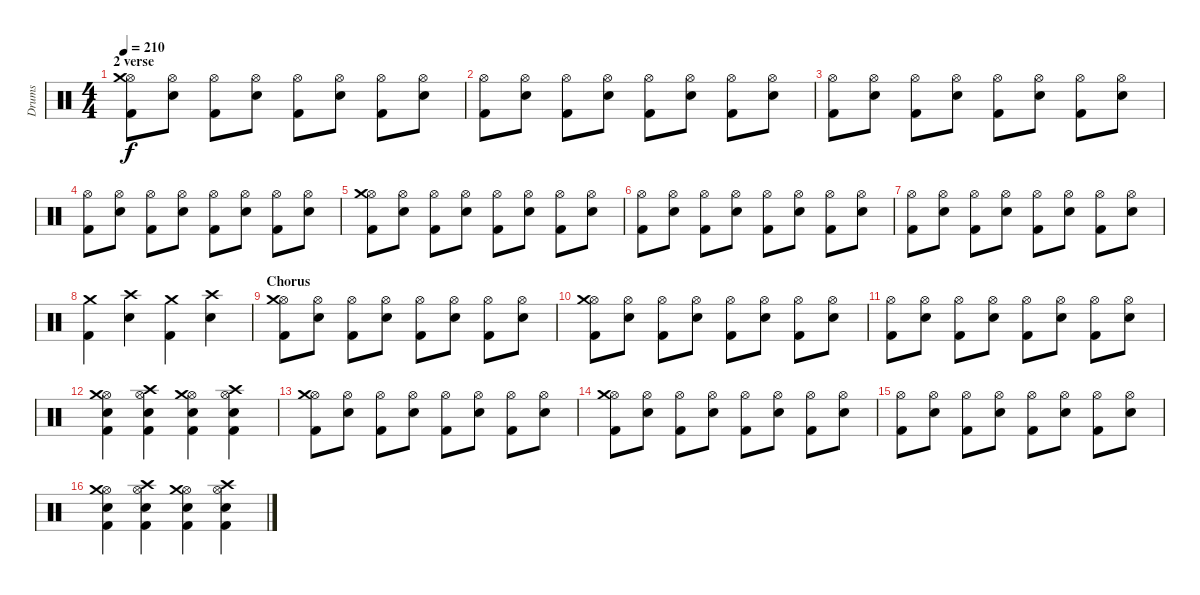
\track ("Drums" "Drums") {instrument percussion}
\staff {score}
\articulation defaults
\ts (4 4)
\section ("" "2 verse")
\tempo 210
\clef neutral
\ks c
("Hi-Hat (open)" "Crash medium (hit)" "Kick (hit) 2").8{dy f} ("Hi-Hat (open)" "Electric Snare (hit)").8 ("Hi-Hat (open)" "Kick (hit) 2").8 ("Hi-Hat (open)" "Electric Snare (hit)").8 ("Hi-Hat (open)" "Kick (hit) 2").8 ("Hi-Hat (open)" "Electric Snare (hit)").8 ("Hi-Hat (open)" "Kick (hit) 2").8 ("Hi-Hat (open)" "Electric Snare (hit)").8 |
("Hi-Hat (open)" "Kick (hit) 2").8 ("Hi-Hat (open)" "Electric Snare (hit)").8 ("Hi-Hat (open)" "Kick (hit) 2").8 ("Hi-Hat (open)" "Electric Snare (hit)").8 ("Hi-Hat (open)" "Kick (hit) 2").8 ("Hi-Hat (open)" "Electric Snare (hit)").8 ("Hi-Hat (open)" "Kick (hit) 2").8 ("Hi-Hat (open)" "Electric Snare (hit)").8 |
("Hi-Hat (open)" "Kick (hit) 2").8 ("Hi-Hat (open)" "Electric Snare (hit)").8 ("Hi-Hat (open)" "Kick (hit) 2").8 ("Hi-Hat (open)" "Electric Snare (hit)").8 ("Hi-Hat (open)" "Kick (hit) 2").8 ("Hi-Hat (open)" "Electric Snare (hit)").8 ("Hi-Hat (open)" "Kick (hit) 2").8 ("Hi-Hat (open)" "Electric Snare (hit)").8 |
("Hi-Hat (open)" "Kick (hit) 2").8 ("Hi-Hat (open)" "Electric Snare (hit)").8 ("Hi-Hat (open)" "Kick (hit) 2").8 ("Hi-Hat (open)" "Electric Snare (hit)").8 ("Hi-Hat (open)" "Kick (hit) 2").8 ("Hi-Hat (open)" "Electric Snare (hit)").8 ("Hi-Hat (open)" "Kick (hit) 2").8 ("Hi-Hat (open)" "Electric Snare (hit)").8 |
("Hi-Hat (open)" "Crash medium (hit)" "Kick (hit) 2").8 ("Hi-Hat (open)" "Electric Snare (hit)").8 ("Hi-Hat (open)" "Kick (hit) 2").8 ("Hi-Hat (open)" "Electric Snare (hit)").8 ("Hi-Hat (open)" "Kick (hit) 2").8 ("Hi-Hat (open)" "Electric Snare (hit)").8 ("Hi-Hat (open)" "Kick (hit) 2").8 ("Hi-Hat (open)" "Electric Snare (hit)").8 |
("Hi-Hat (open)" "Kick (hit) 2").8 ("Hi-Hat (open)" "Electric Snare (hit)").8 ("Hi-Hat (open)" "Kick (hit) 2").8 ("Hi-Hat (open)" "Electric Snare (hit)").8 ("Hi-Hat (open)" "Kick (hit) 2").8 ("Hi-Hat (open)" "Electric Snare (hit)").8 ("Hi-Hat (open)" "Kick (hit) 2").8 ("Hi-Hat (open)" "Electric Snare (hit)").8 |
("Hi-Hat (open)" "Kick (hit) 2").8 ("Hi-Hat (open)" "Electric Snare (hit)").8 ("Hi-Hat (open)" "Kick (hit) 2").8 ("Hi-Hat (open)" "Electric Snare (hit)").8 ("Hi-Hat (open)" "Kick (hit) 2").8 ("Hi-Hat (open)" "Electric Snare (hit)").8 ("Hi-Hat (open)" "Kick (hit) 2").8 ("Hi-Hat (open)" "Electric Snare (hit)").8 |
("Crash medium (hit)" "Kick (hit) 2").4 ("Crash high (hit)" "Electric Snare (hit)").4 ("Crash medium (hit)" "Kick (hit) 2").4 ("Crash high (hit)" "Electric Snare (hit)").4 |
\section ("" "Chorus")
("Hi-Hat (open)" "Crash medium (hit)" "Kick (hit) 2").8 ("Hi-Hat (open)" "Electric Snare (hit)").8 ("Hi-Hat (open)" "Kick (hit) 2").8 ("Hi-Hat (open)" "Electric Snare (hit)").8 ("Hi-Hat (open)" "Kick (hit) 2").8 ("Hi-Hat (open)" "Electric Snare (hit)").8 ("Hi-Hat (open)" "Kick (hit) 2").8 ("Hi-Hat (open)" "Electric Snare (hit)").8 |
("Hi-Hat (open)" "Crash medium (hit)" "Kick (hit) 2").8 ("Hi-Hat (open)" "Electric Snare (hit)").8 ("Hi-Hat (open)" "Kick (hit) 2").8 ("Hi-Hat (open)" "Electric Snare (hit)").8 ("Hi-Hat (open)" "Kick (hit) 2").8 ("Hi-Hat (open)" "Electric Snare (hit)").8 ("Hi-Hat (open)" "Kick (hit) 2").8 ("Hi-Hat (open)" "Electric Snare (hit)").8 |
("Hi-Hat (open)" "Kick (hit) 2").8 ("Hi-Hat (open)" "Electric Snare (hit)").8 ("Hi-Hat (open)" "Kick (hit) 2").8 ("Hi-Hat (open)" "Electric Snare (hit)").8 ("Hi-Hat (open)" "Kick (hit) 2").8 ("Hi-Hat (open)" "Electric Snare (hit)").8 ("Hi-Hat (open)" "Kick (hit) 2").8 ("Hi-Hat (open)" "Electric Snare (hit)").8 |
("Hi-Hat (open)" "Crash medium (hit)" "Electric Snare (hit)" "Kick (hit) 2").4 ("Hi-Hat (open)" "Crash high (hit)" "Electric Snare (hit)" "Kick (hit) 2").4 ("Hi-Hat (open)" "Crash medium (hit)" "Electric Snare (hit)" "Kick (hit) 2").4 ("Hi-Hat (open)" "Crash high (hit)" "Electric Snare (hit)" "Kick (hit) 2").4 |
("Hi-Hat (open)" "Crash medium (hit)" "Kick (hit) 2").8 ("Hi-Hat (open)" "Electric Snare (hit)").8 ("Hi-Hat (open)" "Kick (hit) 2").8 ("Hi-Hat (open)" "Electric Snare (hit)").8 ("Hi-Hat (open)" "Kick (hit) 2").8 ("Hi-Hat (open)" "Electric Snare (hit)").8 ("Hi-Hat (open)" "Kick (hit) 2").8 ("Hi-Hat (open)" "Electric Snare (hit)").8 |
("Hi-Hat (open)" "Crash medium (hit)" "Kick (hit) 2").8 ("Hi-Hat (open)" "Electric Snare (hit)").8 ("Hi-Hat (open)" "Kick (hit) 2").8 ("Hi-Hat (open)" "Electric Snare (hit)").8 ("Hi-Hat (open)" "Kick (hit) 2").8 ("Hi-Hat (open)" "Electric Snare (hit)").8 ("Hi-Hat (open)" "Kick (hit) 2").8 ("Hi-Hat (open)" "Electric Snare (hit)").8 |
("Hi-Hat (open)" "Kick (hit) 2").8 ("Hi-Hat (open)" "Electric Snare (hit)").8 ("Hi-Hat (open)" "Kick (hit) 2").8 ("Hi-Hat (open)" "Electric Snare (hit)").8 ("Hi-Hat (open)" "Kick (hit) 2").8 ("Hi-Hat (open)" "Electric Snare (hit)").8 ("Hi-Hat (open)" "Kick (hit) 2").8 ("Hi-Hat (open)" "Electric Snare (hit)").8 |
("Hi-Hat (open)" "Crash medium (hit)" "Electric Snare (hit)" "Kick (hit) 2").4 ("Hi-Hat (open)" "Crash high (hit)" "Electric Snare (hit)" "Kick (hit) 2").4 ("Hi-Hat (open)" "Crash medium (hit)" "Electric Snare (hit)" "Kick (hit) 2").4 ("Hi-Hat (open)" "Crash high (hit)" "Electric Snare (hit)" "Kick (hit) 2").4
